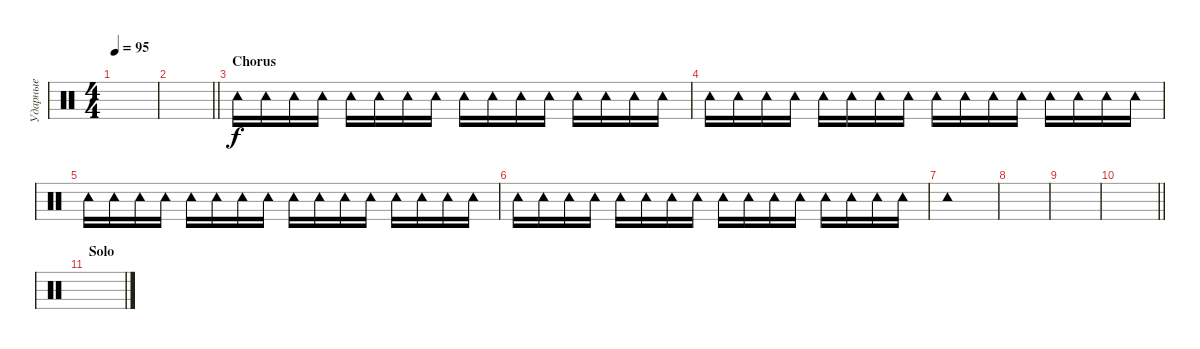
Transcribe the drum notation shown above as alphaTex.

\track ("Ударные" "Ударные") {instrument percussion}
\staff {score}
\articulation defaults
\ts (4 4)
\tempo 95
\clef neutral
\ks c
|
\barLineRight lightlight
|
\section ("" "Chorus")
"Tambourine (hit)".16 "Tambourine (hit)".16 "Tambourine (hit)".16 "Tambourine (hit)".16 "Tambourine (hit)".16 "Tambourine (hit)".16 "Tambourine (hit)".16 "Tambourine (hit)".16 "Tambourine (hit)".16 "Tambourine (hit)".16 "Tambourine (hit)".16 "Tambourine (hit)".16 "Tambourine (hit)".16 "Tambourine (hit)".16 "Tambourine (hit)".16 "Tambourine (hit)".16 |
"Tambourine (hit)".16 "Tambourine (hit)".16 "Tambourine (hit)".16 "Tambourine (hit)".16 "Tambourine (hit)".16 "Tambourine (hit)".16 "Tambourine (hit)".16 "Tambourine (hit)".16 "Tambourine (hit)".16 "Tambourine (hit)".16 "Tambourine (hit)".16 "Tambourine (hit)".16 "Tambourine (hit)".16 "Tambourine (hit)".16 "Tambourine (hit)".16 "Tambourine (hit)".16 |
"Tambourine (hit)".16 "Tambourine (hit)".16 "Tambourine (hit)".16 "Tambourine (hit)".16 "Tambourine (hit)".16 "Tambourine (hit)".16 "Tambourine (hit)".16 "Tambourine (hit)".16 "Tambourine (hit)".16 "Tambourine (hit)".16 "Tambourine (hit)".16 "Tambourine (hit)".16 "Tambourine (hit)".16 "Tambourine (hit)".16 "Tambourine (hit)".16 "Tambourine (hit)".16 |
"Tambourine (hit)".16 "Tambourine (hit)".16 "Tambourine (hit)".16 "Tambourine (hit)".16 "Tambourine (hit)".16 "Tambourine (hit)".16 "Tambourine (hit)".16 "Tambourine (hit)".16 "Tambourine (hit)".16 "Tambourine (hit)".16 "Tambourine (hit)".16 "Tambourine (hit)".16 "Tambourine (hit)".16 "Tambourine (hit)".16 "Tambourine (hit)".16 "Tambourine (hit)".16 |
"Tambourine (hit)".1{dy f} |
|
|
\barLineRight lightlight
|
\section ("" "Solo")
